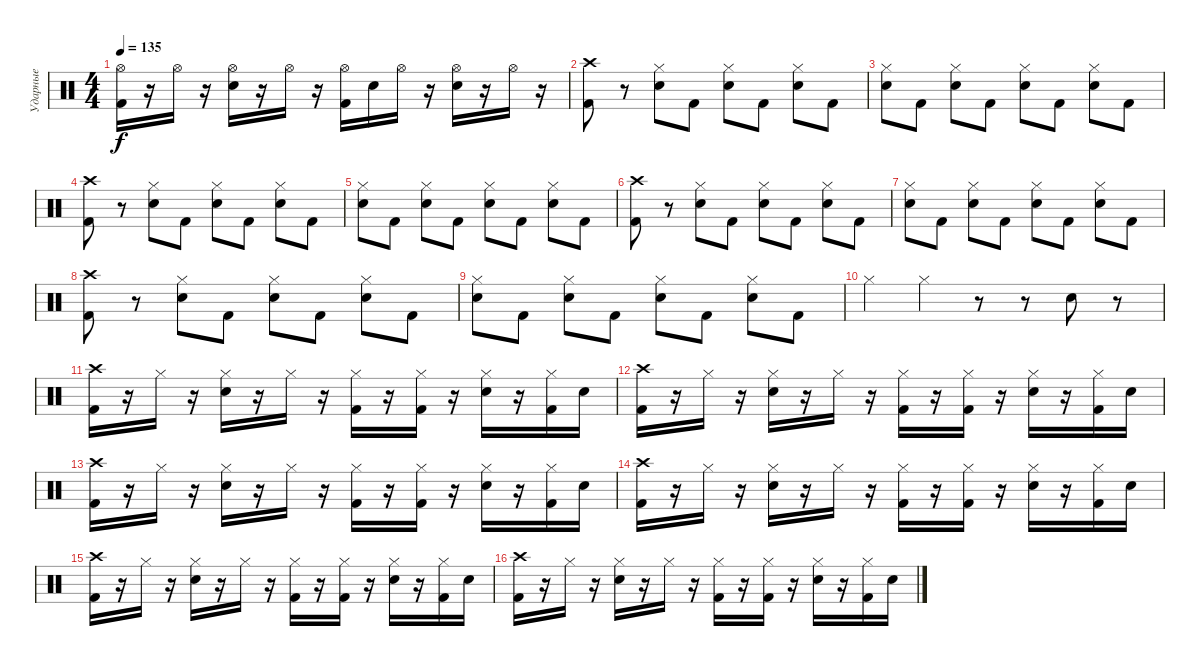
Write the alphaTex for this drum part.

\track ("Ударные" "Ударные") {instrument percussion}
\staff {score}
\articulation defaults
\ts (4 4)
\tempo 135
\clef neutral
\ks c
("Kick (hit) 2" "Hi-Hat (open)").16{dy f} r.16 "Hi-Hat (open)".16 r.16 ("Electric Snare (hit)" "Hi-Hat (open)").16 r.16 "Hi-Hat (open)".16 r.16 ("Kick (hit) 2" "Hi-Hat (open)").16 "Electric Snare (hit)".16 "Hi-Hat (open)".16 r.16 ("Electric Snare (hit)" "Hi-Hat (open)").16 r.16 "Hi-Hat (open)".16 r.16 |
("Kick (hit) 2" "Crash high (hit)").8 r.8 ("Electric Snare (hit)" "Hi-Hat (closed)").8 "Kick (hit) 2".8 ("Electric Snare (hit)" "Hi-Hat (closed)").8 "Kick (hit) 2".8 ("Electric Snare (hit)" "Hi-Hat (closed)").8 "Kick (hit) 2".8 |
("Electric Snare (hit)" "Hi-Hat (closed)").8 "Kick (hit) 2".8 ("Electric Snare (hit)" "Hi-Hat (closed)").8 "Kick (hit) 2".8 ("Electric Snare (hit)" "Hi-Hat (closed)").8 "Kick (hit) 2".8 ("Electric Snare (hit)" "Hi-Hat (closed)").8 "Kick (hit) 2".8 |
("Kick (hit) 2" "Crash high (hit)").8 r.8 ("Electric Snare (hit)" "Hi-Hat (closed)").8 "Kick (hit) 2".8 ("Electric Snare (hit)" "Hi-Hat (closed)").8 "Kick (hit) 2".8 ("Electric Snare (hit)" "Hi-Hat (closed)").8 "Kick (hit) 2".8 |
("Electric Snare (hit)" "Hi-Hat (closed)").8 "Kick (hit) 2".8 ("Electric Snare (hit)" "Hi-Hat (closed)").8 "Kick (hit) 2".8 ("Electric Snare (hit)" "Hi-Hat (closed)").8 "Kick (hit) 2".8 ("Electric Snare (hit)" "Hi-Hat (closed)").8 "Kick (hit) 2".8 |
("Kick (hit) 2" "Crash high (hit)").8 r.8 ("Electric Snare (hit)" "Hi-Hat (closed)").8 "Kick (hit) 2".8 ("Electric Snare (hit)" "Hi-Hat (closed)").8 "Kick (hit) 2".8 ("Electric Snare (hit)" "Hi-Hat (closed)").8 "Kick (hit) 2".8 |
("Electric Snare (hit)" "Hi-Hat (closed)").8 "Kick (hit) 2".8 ("Electric Snare (hit)" "Hi-Hat (closed)").8 "Kick (hit) 2".8 ("Electric Snare (hit)" "Hi-Hat (closed)").8 "Kick (hit) 2".8 ("Electric Snare (hit)" "Hi-Hat (closed)").8 "Kick (hit) 2".8 |
("Kick (hit) 2" "Crash high (hit)").8 r.8 ("Electric Snare (hit)" "Hi-Hat (closed)").8 "Kick (hit) 2".8 ("Electric Snare (hit)" "Hi-Hat (closed)").8 "Kick (hit) 2".8 ("Electric Snare (hit)" "Hi-Hat (closed)").8 "Kick (hit) 2".8 |
("Electric Snare (hit)" "Hi-Hat (closed)").8 "Kick (hit) 2".8 ("Electric Snare (hit)" "Hi-Hat (closed)").8 "Kick (hit) 2".8 ("Electric Snare (hit)" "Hi-Hat (closed)").8 "Kick (hit) 2".8 ("Electric Snare (hit)" "Hi-Hat (closed)").8 "Kick (hit) 2".8 |
"Hi-Hat (closed)".4 "Hi-Hat (closed)".4 r.8 r.8 "Electric Snare (hit)".8 r.8 |
("Kick (hit) 2" "Crash high (hit)").16 r.16 "Hi-Hat (closed)".16 r.16 ("Electric Snare (hit)" "Hi-Hat (closed)").16 r.16 "Hi-Hat (closed)".16 r.16 ("Kick (hit) 2" "Hi-Hat (closed)").16 r.16 ("Kick (hit) 2" "Hi-Hat (closed)").16 r.16 ("Electric Snare (hit)" "Hi-Hat (closed)").16 r.16 ("Kick (hit) 2" "Hi-Hat (closed)").16 "Electric Snare (hit)".16 |
("Kick (hit) 2" "Crash high (hit)").16 r.16 "Hi-Hat (closed)".16 r.16 ("Electric Snare (hit)" "Hi-Hat (closed)").16 r.16 "Hi-Hat (closed)".16 r.16 ("Kick (hit) 2" "Hi-Hat (closed)").16 r.16 ("Kick (hit) 2" "Hi-Hat (closed)").16 r.16 ("Electric Snare (hit)" "Hi-Hat (closed)").16 r.16 ("Kick (hit) 2" "Hi-Hat (closed)").16 "Electric Snare (hit)".16 |
("Kick (hit) 2" "Crash high (hit)").16 r.16 "Hi-Hat (closed)".16 r.16 ("Electric Snare (hit)" "Hi-Hat (closed)").16 r.16 "Hi-Hat (closed)".16 r.16 ("Kick (hit) 2" "Hi-Hat (closed)").16 r.16 ("Kick (hit) 2" "Hi-Hat (closed)").16 r.16 ("Electric Snare (hit)" "Hi-Hat (closed)").16 r.16 ("Kick (hit) 2" "Hi-Hat (closed)").16 "Electric Snare (hit)".16 |
("Kick (hit) 2" "Crash high (hit)").16 r.16 "Hi-Hat (closed)".16 r.16 ("Electric Snare (hit)" "Hi-Hat (closed)").16 r.16 "Hi-Hat (closed)".16 r.16 ("Kick (hit) 2" "Hi-Hat (closed)").16 r.16 ("Kick (hit) 2" "Hi-Hat (closed)").16 r.16 ("Electric Snare (hit)" "Hi-Hat (closed)").16 r.16 ("Kick (hit) 2" "Hi-Hat (closed)").16 "Electric Snare (hit)".16 |
("Kick (hit) 2" "Crash high (hit)").16 r.16 "Hi-Hat (closed)".16 r.16 ("Electric Snare (hit)" "Hi-Hat (closed)").16 r.16 "Hi-Hat (closed)".16 r.16 ("Kick (hit) 2" "Hi-Hat (closed)").16 r.16 ("Kick (hit) 2" "Hi-Hat (closed)").16 r.16 ("Electric Snare (hit)" "Hi-Hat (closed)").16 r.16 ("Kick (hit) 2" "Hi-Hat (closed)").16 "Electric Snare (hit)".16 |
("Kick (hit) 2" "Crash high (hit)").16 r.16 "Hi-Hat (closed)".16 r.16 ("Electric Snare (hit)" "Hi-Hat (closed)").16 r.16 "Hi-Hat (closed)".16 r.16 ("Kick (hit) 2" "Hi-Hat (closed)").16 r.16 ("Kick (hit) 2" "Hi-Hat (closed)").16 r.16 ("Electric Snare (hit)" "Hi-Hat (closed)").16 r.16 ("Kick (hit) 2" "Hi-Hat (closed)").16 "Electric Snare (hit)".16
